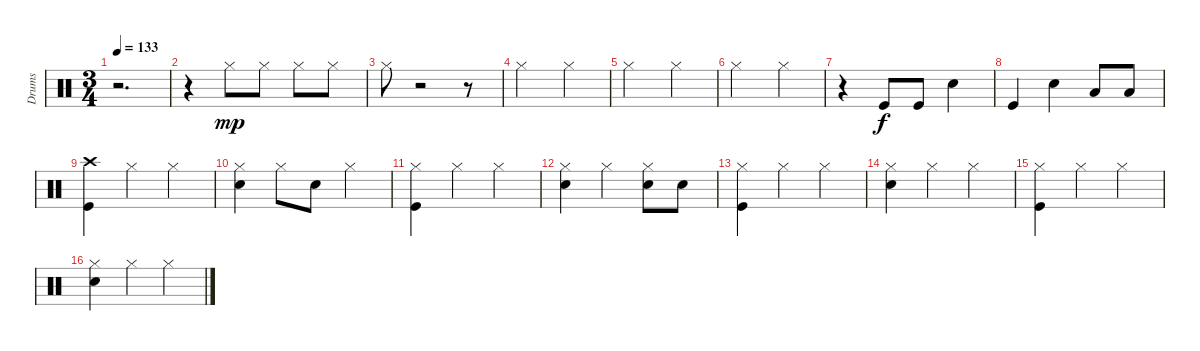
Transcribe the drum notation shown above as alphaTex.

\track ("Drums" "Drums") {instrument percussion}
\staff {score}
\articulation defaults
\ts (3 4)
\tempo 133
\clef neutral
\ks c
r.2{d dy mp} |
r.4 "Hi-Hat (closed)".8 "Hi-Hat (closed)".8 "Hi-Hat (closed)".8 "Hi-Hat (closed)".8 |
"Hi-Hat (closed)".8 r.2 r.8 |
"Hi-Hat (closed)".2 "Hi-Hat (closed)".4 |
"Hi-Hat (closed)".2 "Hi-Hat (closed)".4 |
"Hi-Hat (closed)".2 "Hi-Hat (closed)".4 |
r.4 "Kick (hit)".8{dy f} "Kick (hit)".8 "Snare (hit) 2".4 |
"Kick (hit)".4 "Snare (hit) 2".4 "Low Tom (hit)".8 "Low Tom (hit)".8 |
("Crash high (hit)" "Kick (hit)").4 "Hi-Hat (closed)".4 "Hi-Hat (closed)".4 |
("Hi-Hat (closed)" "Snare (hit) 2").4 "Hi-Hat (closed)".8 "Snare (hit) 2".8 "Hi-Hat (closed)".4 |
("Hi-Hat (closed)" "Kick (hit)").4 "Hi-Hat (closed)".4 "Hi-Hat (closed)".4 |
("Hi-Hat (closed)" "Snare (hit) 2").4 "Hi-Hat (closed)".4 ("Hi-Hat (closed)" "Snare (hit) 2").8 "Snare (hit) 2".8 |
("Hi-Hat (closed)" "Kick (hit)").4 "Hi-Hat (closed)".4 "Hi-Hat (closed)".4 |
("Hi-Hat (closed)" "Snare (hit) 2").4 "Hi-Hat (closed)".4 "Hi-Hat (closed)".4 |
("Hi-Hat (closed)" "Kick (hit)").4 "Hi-Hat (closed)".4 "Hi-Hat (closed)".4 |
("Hi-Hat (closed)" "Snare (hit) 2").4 "Hi-Hat (closed)".4 "Hi-Hat (closed)".4
